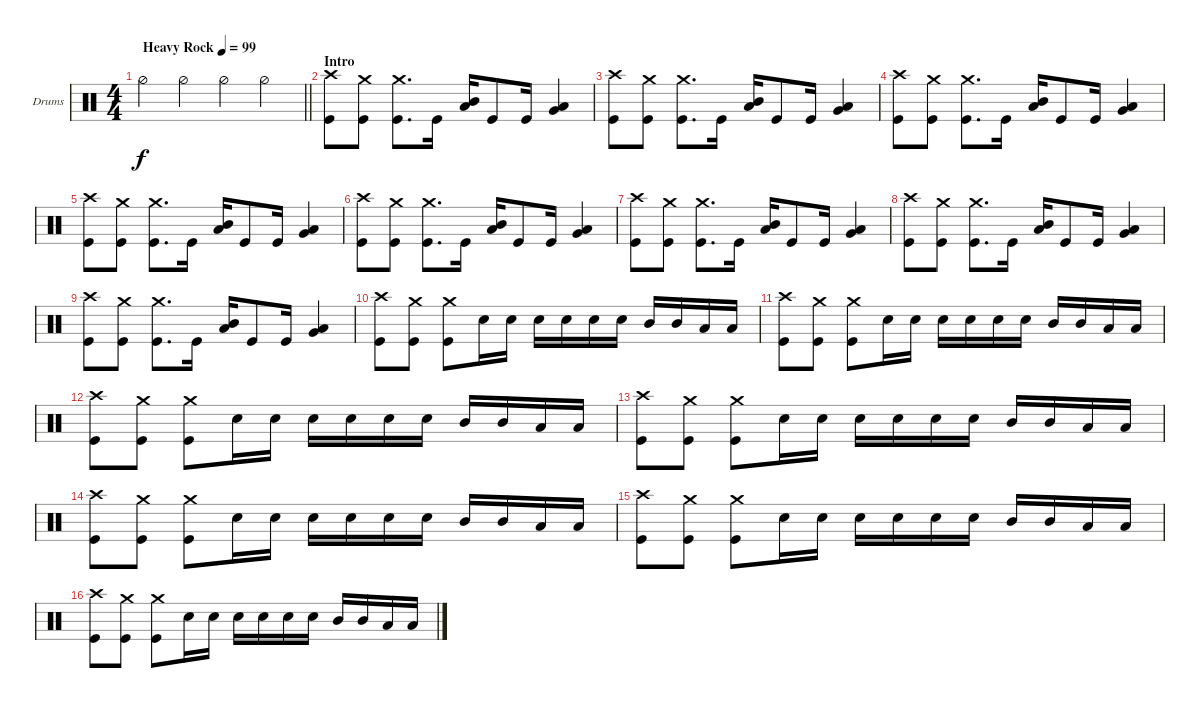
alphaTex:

\bracketExtendMode groupsimilarinstruments
\firstSystemTrackNameOrientation horizontal
\otherSystemsTrackNameOrientation horizontal
\track ("Drumkit" "Drums") {instrument percussion}
\staff {score}
\articulation defaults
\ts (4 4)
\beaming (8 2 2 2 2)
\tempo (99 "Heavy Rock")
\clef neutral
\barLineRight lightlight
\ks c "Hi-Hat (half)".4{dy f} "Hi-Hat (half)".4 "Hi-Hat (half)".4 "Hi-Hat (half)".4
|
\section ("" "Intro")
("Crash high (hit)" "Kick (hit)").8 ("Crash medium (hit)" "Kick (hit)").8 ("Crash medium (hit)" "Kick (hit)").8{d} "Kick (hit)".16 ("Mid Tom (hit)" "Low Tom (hit)").16 "Kick (hit)".8 "Kick (hit)".16 ("Low Tom (hit)" "Very Low Tom (hit)").4 |
("Crash high (hit)" "Kick (hit)").8 ("Crash medium (hit)" "Kick (hit)").8 ("Crash medium (hit)" "Kick (hit)").8{d} "Kick (hit)".16 ("Mid Tom (hit)" "Low Tom (hit)").16 "Kick (hit)".8 "Kick (hit)".16 ("Low Tom (hit)" "Very Low Tom (hit)").4 |
("Crash high (hit)" "Kick (hit)").8 ("Crash medium (hit)" "Kick (hit)").8 ("Crash medium (hit)" "Kick (hit)").8{d} "Kick (hit)".16 ("Mid Tom (hit)" "Low Tom (hit)").16 "Kick (hit)".8 "Kick (hit)".16 ("Low Tom (hit)" "Very Low Tom (hit)").4 |
("Crash high (hit)" "Kick (hit)").8 ("Crash medium (hit)" "Kick (hit)").8 ("Crash medium (hit)" "Kick (hit)").8{d} "Kick (hit)".16 ("Mid Tom (hit)" "Low Tom (hit)").16 "Kick (hit)".8 "Kick (hit)".16 ("Low Tom (hit)" "Very Low Tom (hit)").4 |
("Crash high (hit)" "Kick (hit)").8 ("Crash medium (hit)" "Kick (hit)").8 ("Crash medium (hit)" "Kick (hit)").8{d} "Kick (hit)".16 ("Mid Tom (hit)" "Low Tom (hit)").16 "Kick (hit)".8 "Kick (hit)".16 ("Low Tom (hit)" "Very Low Tom (hit)").4 |
("Crash high (hit)" "Kick (hit)").8 ("Crash medium (hit)" "Kick (hit)").8 ("Crash medium (hit)" "Kick (hit)").8{d} "Kick (hit)".16 ("Mid Tom (hit)" "Low Tom (hit)").16 "Kick (hit)".8 "Kick (hit)".16 ("Low Tom (hit)" "Very Low Tom (hit)").4 |
("Crash high (hit)" "Kick (hit)").8 ("Crash medium (hit)" "Kick (hit)").8 ("Crash medium (hit)" "Kick (hit)").8{d} "Kick (hit)".16 ("Mid Tom (hit)" "Low Tom (hit)").16 "Kick (hit)".8 "Kick (hit)".16 ("Low Tom (hit)" "Very Low Tom (hit)").4 |
("Crash high (hit)" "Kick (hit)").8 ("Crash medium (hit)" "Kick (hit)").8 ("Crash medium (hit)" "Kick (hit)").8{d} "Kick (hit)".16 ("Mid Tom (hit)" "Low Tom (hit)").16 "Kick (hit)".8 "Kick (hit)".16 ("Low Tom (hit)" "Very Low Tom (hit)").4 |
("Crash high (hit)" "Kick (hit)").8 ("Crash medium (hit)" "Kick (hit)").8 ("Crash medium (hit)" "Kick (hit)").8 "Snare (hit) 2".16 "Snare (hit) 2".16 "Snare (hit) 2".16 "Snare (hit) 2".16 "Snare (hit) 2".16 "Snare (hit) 2".16 "Mid Tom (hit)".16 "Mid Tom (hit)".16 "Low Tom (hit)".16 "Low Tom (hit)".16 |
("Crash high (hit)" "Kick (hit)").8 ("Crash medium (hit)" "Kick (hit)").8 ("Crash medium (hit)" "Kick (hit)").8 "Snare (hit) 2".16 "Snare (hit) 2".16 "Snare (hit) 2".16 "Snare (hit) 2".16 "Snare (hit) 2".16 "Snare (hit) 2".16 "Mid Tom (hit)".16 "Mid Tom (hit)".16 "Low Tom (hit)".16 "Low Tom (hit)".16 |
("Crash high (hit)" "Kick (hit)").8 ("Crash medium (hit)" "Kick (hit)").8 ("Crash medium (hit)" "Kick (hit)").8 "Snare (hit) 2".16 "Snare (hit) 2".16 "Snare (hit) 2".16 "Snare (hit) 2".16 "Snare (hit) 2".16 "Snare (hit) 2".16 "Mid Tom (hit)".16 "Mid Tom (hit)".16 "Low Tom (hit)".16 "Low Tom (hit)".16 |
("Crash high (hit)" "Kick (hit)").8 ("Crash medium (hit)" "Kick (hit)").8 ("Crash medium (hit)" "Kick (hit)").8 "Snare (hit) 2".16 "Snare (hit) 2".16 "Snare (hit) 2".16 "Snare (hit) 2".16 "Snare (hit) 2".16 "Snare (hit) 2".16 "Mid Tom (hit)".16 "Mid Tom (hit)".16 "Low Tom (hit)".16 "Low Tom (hit)".16 |
("Crash high (hit)" "Kick (hit)").8 ("Crash medium (hit)" "Kick (hit)").8 ("Crash medium (hit)" "Kick (hit)").8 "Snare (hit) 2".16 "Snare (hit) 2".16 "Snare (hit) 2".16 "Snare (hit) 2".16 "Snare (hit) 2".16 "Snare (hit) 2".16 "Mid Tom (hit)".16 "Mid Tom (hit)".16 "Low Tom (hit)".16 "Low Tom (hit)".16 |
("Crash high (hit)" "Kick (hit)").8 ("Crash medium (hit)" "Kick (hit)").8 ("Crash medium (hit)" "Kick (hit)").8 "Snare (hit) 2".16 "Snare (hit) 2".16 "Snare (hit) 2".16 "Snare (hit) 2".16 "Snare (hit) 2".16 "Snare (hit) 2".16 "Mid Tom (hit)".16 "Mid Tom (hit)".16 "Low Tom (hit)".16 "Low Tom (hit)".16 |
("Crash high (hit)" "Kick (hit)").8 ("Crash medium (hit)" "Kick (hit)").8 ("Crash medium (hit)" "Kick (hit)").8 "Snare (hit) 2".16 "Snare (hit) 2".16 "Snare (hit) 2".16 "Snare (hit) 2".16 "Snare (hit) 2".16 "Snare (hit) 2".16 "Mid Tom (hit)".16 "Mid Tom (hit)".16 "Low Tom (hit)".16 "Low Tom (hit)".16
